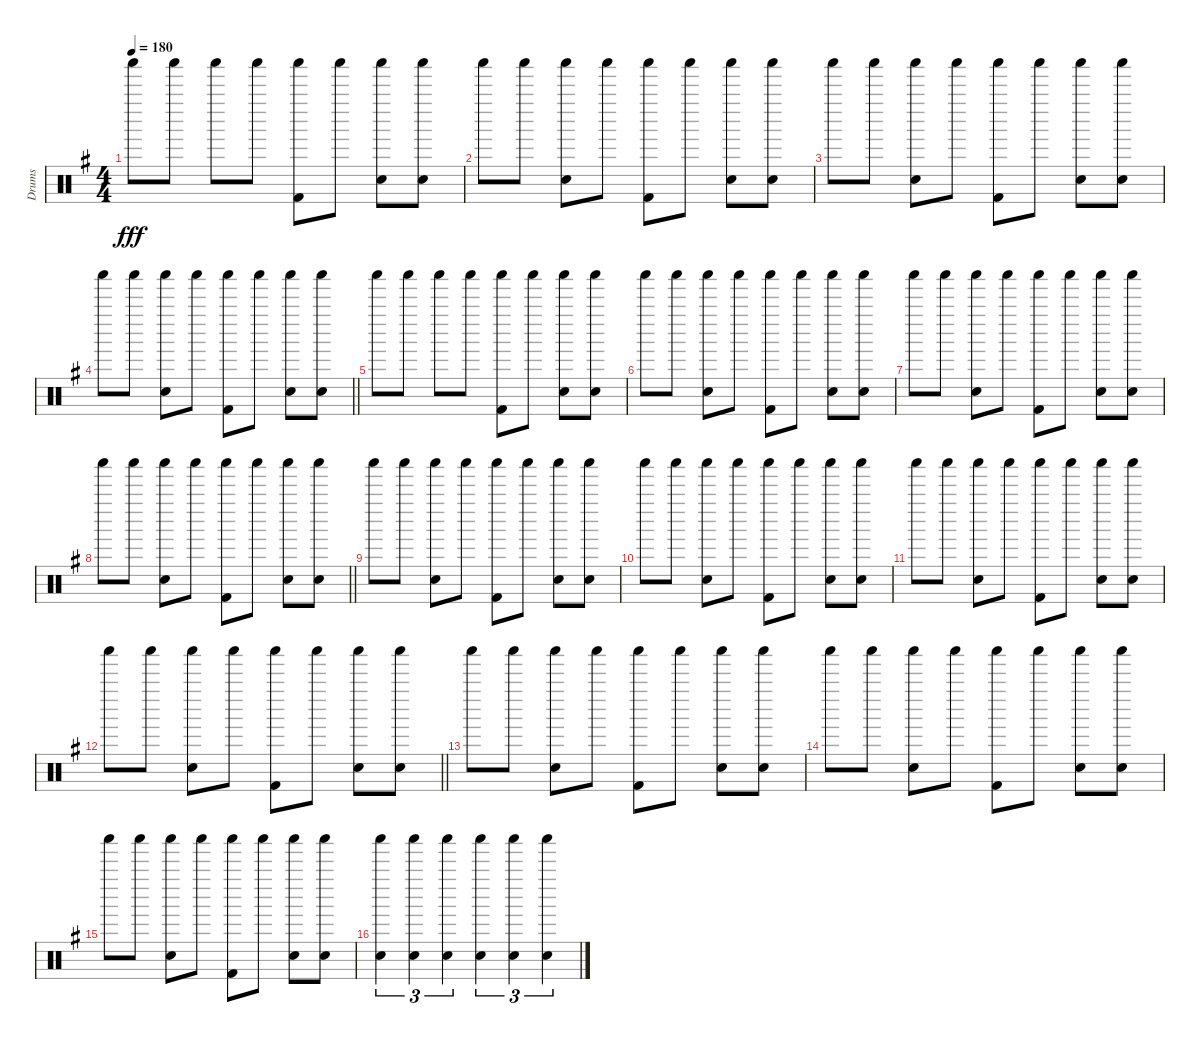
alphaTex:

\track ("Drums" "Drums") {instrument percussion}
\staff {score}
\articulation defaults
\ts (4 4)
\tempo 180
\clef neutral
\ks eminor "Shaker (hit)".8{dy fff} "Shaker (hit)".8 "Shaker (hit)".8 "Shaker (hit)".8
("Shaker (hit)" "Kick (hit) 2").8 "Shaker (hit)".8 ("Shaker (hit)" "Snare (hit) 2").8 ("Shaker (hit)" "Snare (hit) 2").8 |
"Shaker (hit)".8 "Shaker (hit)".8 ("Shaker (hit)" "Snare (hit) 2").8 "Shaker (hit)".8 ("Shaker (hit)" "Kick (hit) 2").8 "Shaker (hit)".8 ("Shaker (hit)" "Snare (hit) 2").8 ("Shaker (hit)" "Snare (hit) 2").8 |
"Shaker (hit)".8 "Shaker (hit)".8 ("Shaker (hit)" "Snare (hit) 2").8 "Shaker (hit)".8 ("Shaker (hit)" "Kick (hit) 2").8 "Shaker (hit)".8 ("Shaker (hit)" "Snare (hit) 2").8 ("Shaker (hit)" "Snare (hit) 2").8 |
\barLineRight lightlight "Shaker (hit)".8 "Shaker (hit)".8
("Shaker (hit)" "Snare (hit) 2").8 "Shaker (hit)".8 ("Shaker (hit)" "Kick (hit) 2").8 "Shaker (hit)".8 ("Shaker (hit)" "Snare (hit) 2").8 ("Shaker (hit)" "Snare (hit) 2").8 |
"Shaker (hit)".8 "Shaker (hit)".8 "Shaker (hit)".8 "Shaker (hit)".8 ("Shaker (hit)" "Kick (hit) 2").8 "Shaker (hit)".8 ("Shaker (hit)" "Snare (hit) 2").8 ("Shaker (hit)" "Snare (hit) 2").8 |
"Shaker (hit)".8 "Shaker (hit)".8 ("Shaker (hit)" "Snare (hit) 2").8 "Shaker (hit)".8 ("Shaker (hit)" "Kick (hit) 2").8 "Shaker (hit)".8 ("Shaker (hit)" "Snare (hit) 2").8 ("Shaker (hit)" "Snare (hit) 2").8 |
"Shaker (hit)".8 "Shaker (hit)".8 ("Shaker (hit)" "Snare (hit) 2").8 "Shaker (hit)".8 ("Shaker (hit)" "Kick (hit) 2").8 "Shaker (hit)".8 ("Shaker (hit)" "Snare (hit) 2").8 ("Shaker (hit)" "Snare (hit) 2").8 |
\barLineRight lightlight "Shaker (hit)".8 "Shaker (hit)".8
("Shaker (hit)" "Snare (hit) 2").8 "Shaker (hit)".8 ("Shaker (hit)" "Kick (hit) 2").8 "Shaker (hit)".8 ("Shaker (hit)" "Snare (hit) 2").8 ("Shaker (hit)" "Snare (hit) 2").8 |
"Shaker (hit)".8 "Shaker (hit)".8 ("Shaker (hit)" "Snare (hit) 2").8 "Shaker (hit)".8 ("Shaker (hit)" "Kick (hit) 2").8 "Shaker (hit)".8 ("Shaker (hit)" "Snare (hit) 2").8 ("Shaker (hit)" "Snare (hit) 2").8 |
"Shaker (hit)".8 "Shaker (hit)".8 ("Shaker (hit)" "Snare (hit) 2").8 "Shaker (hit)".8 ("Shaker (hit)" "Kick (hit) 2").8 "Shaker (hit)".8 ("Shaker (hit)" "Snare (hit) 2").8 ("Shaker (hit)" "Snare (hit) 2").8 |
"Shaker (hit)".8 "Shaker (hit)".8 ("Shaker (hit)" "Snare (hit) 2").8 "Shaker (hit)".8 ("Shaker (hit)" "Kick (hit) 2").8 "Shaker (hit)".8 ("Shaker (hit)" "Snare (hit) 2").8 ("Shaker (hit)" "Snare (hit) 2").8 |
\barLineRight lightlight "Shaker (hit)".8 "Shaker (hit)".8
("Shaker (hit)" "Snare (hit) 2").8 "Shaker (hit)".8 ("Shaker (hit)" "Kick (hit) 2").8 "Shaker (hit)".8 ("Shaker (hit)" "Snare (hit) 2").8 ("Shaker (hit)" "Snare (hit) 2").8 |
"Shaker (hit)".8 "Shaker (hit)".8 ("Shaker (hit)" "Snare (hit) 2").8 "Shaker (hit)".8 ("Shaker (hit)" "Kick (hit) 2").8 "Shaker (hit)".8 ("Shaker (hit)" "Snare (hit) 2").8 ("Shaker (hit)" "Snare (hit) 2").8 |
"Shaker (hit)".8 "Shaker (hit)".8 ("Shaker (hit)" "Snare (hit) 2").8 "Shaker (hit)".8 ("Shaker (hit)" "Kick (hit) 2").8 "Shaker (hit)".8 ("Shaker (hit)" "Snare (hit) 2").8 ("Shaker (hit)" "Snare (hit) 2").8 |
"Shaker (hit)".8 "Shaker (hit)".8 ("Shaker (hit)" "Snare (hit) 2").8 "Shaker (hit)".8 ("Shaker (hit)" "Kick (hit) 2").8 "Shaker (hit)".8 ("Shaker (hit)" "Snare (hit) 2").8 ("Shaker (hit)" "Snare (hit) 2").8 |
("Shaker (hit)" "Snare (hit) 2").4{tu (3 2)} ("Shaker (hit)" "Snare (hit) 2").4{tu (3 2)} ("Shaker (hit)" "Snare (hit) 2").4{tu (3 2)} ("Shaker (hit)" "Snare (hit) 2").4{tu (3 2)} ("Shaker (hit)" "Snare (hit) 2").4{tu (3 2)} ("Shaker (hit)" "Snare (hit) 2").4{tu (3 2)}
